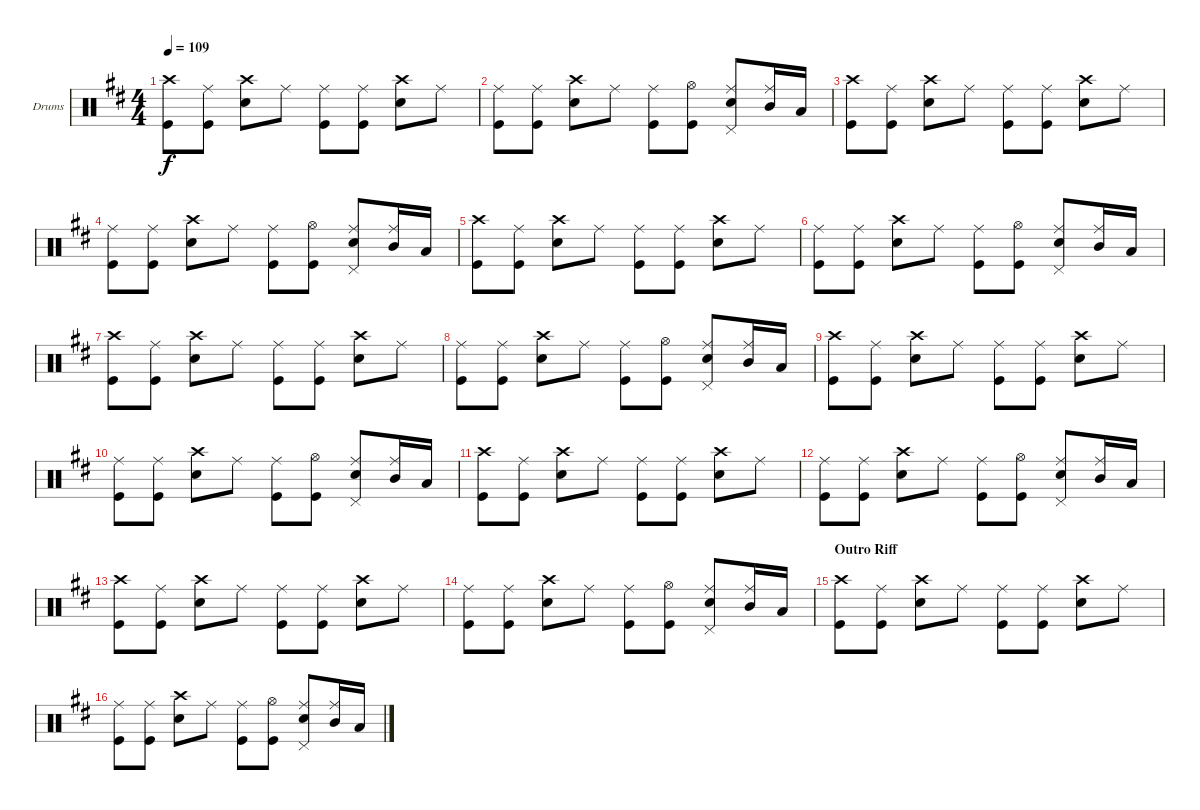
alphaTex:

\bracketExtendMode groupsimilarinstruments
\firstSystemTrackNameOrientation horizontal
\otherSystemsTrackNameOrientation horizontal
\track ("Drumkit" "Drums") {instrument percussion}
\staff {score}
\articulation defaults
\ts (4 4)
\tempo 109
\clef neutral
\ks d
("Kick (hit)" "Crash high (hit)").8{dy f} ("Kick (hit)" "Ride (middle)").8 ("Snare (hit) 2" "Crash high (hit)").8 "Ride (middle)".8 ("Kick (hit)" "Ride (middle)").8 ("Kick (hit)" "Ride (middle)").8 ("Snare (hit) 2" "Crash high (hit)").8 "Ride (middle)".8 |
("Kick (hit)" "Ride (middle)").8 ("Kick (hit)" "Ride (middle)").8 ("Snare (hit) 2" "Crash high (hit)").8 "Ride (middle)".8 ("Kick (hit)" "Ride (middle)").8 ("Kick (hit)" "Hi-Hat (open)").8 ("Snare (hit) 2" "Pedal Hi-Hat (hit)" "Ride (middle)").8 ("Ride (middle)" "Mid Tom (hit)").16 "Low Tom (hit)".16 |
("Kick (hit)" "Crash high (hit)").8 ("Kick (hit)" "Ride (middle)").8 ("Snare (hit) 2" "Crash high (hit)").8 "Ride (middle)".8 ("Kick (hit)" "Ride (middle)").8 ("Kick (hit)" "Ride (middle)").8 ("Snare (hit) 2" "Crash high (hit)").8 "Ride (middle)".8 |
("Kick (hit)" "Ride (middle)").8 ("Kick (hit)" "Ride (middle)").8 ("Snare (hit) 2" "Crash high (hit)").8 "Ride (middle)".8 ("Kick (hit)" "Ride (middle)").8 ("Kick (hit)" "Hi-Hat (open)").8 ("Snare (hit) 2" "Pedal Hi-Hat (hit)" "Ride (middle)").8 ("Ride (middle)" "Mid Tom (hit)").16 "Low Tom (hit)".16 |
("Kick (hit)" "Crash high (hit)").8 ("Kick (hit)" "Ride (middle)").8 ("Snare (hit) 2" "Crash high (hit)").8 "Ride (middle)".8 ("Kick (hit)" "Ride (middle)").8 ("Kick (hit)" "Ride (middle)").8 ("Snare (hit) 2" "Crash high (hit)").8 "Ride (middle)".8 |
("Kick (hit)" "Ride (middle)").8 ("Kick (hit)" "Ride (middle)").8 ("Snare (hit) 2" "Crash high (hit)").8 "Ride (middle)".8 ("Kick (hit)" "Ride (middle)").8 ("Kick (hit)" "Hi-Hat (open)").8 ("Snare (hit) 2" "Pedal Hi-Hat (hit)" "Ride (middle)").8 ("Ride (middle)" "Mid Tom (hit)").16 "Low Tom (hit)".16 |
("Kick (hit)" "Crash high (hit)").8 ("Kick (hit)" "Ride (middle)").8 ("Snare (hit) 2" "Crash high (hit)").8 "Ride (middle)".8 ("Kick (hit)" "Ride (middle)").8 ("Kick (hit)" "Ride (middle)").8 ("Snare (hit) 2" "Crash high (hit)").8 "Ride (middle)".8 |
("Kick (hit)" "Ride (middle)").8 ("Kick (hit)" "Ride (middle)").8 ("Snare (hit) 2" "Crash high (hit)").8 "Ride (middle)".8 ("Kick (hit)" "Ride (middle)").8 ("Kick (hit)" "Hi-Hat (open)").8 ("Snare (hit) 2" "Pedal Hi-Hat (hit)" "Ride (middle)").8 ("Ride (middle)" "Mid Tom (hit)").16 "Low Tom (hit)".16 |
("Kick (hit)" "Crash high (hit)").8 ("Kick (hit)" "Ride (middle)").8 ("Snare (hit) 2" "Crash high (hit)").8 "Ride (middle)".8 ("Kick (hit)" "Ride (middle)").8 ("Kick (hit)" "Ride (middle)").8 ("Snare (hit) 2" "Crash high (hit)").8 "Ride (middle)".8 |
("Kick (hit)" "Ride (middle)").8 ("Kick (hit)" "Ride (middle)").8 ("Snare (hit) 2" "Crash high (hit)").8 "Ride (middle)".8 ("Kick (hit)" "Ride (middle)").8 ("Kick (hit)" "Hi-Hat (open)").8 ("Snare (hit) 2" "Pedal Hi-Hat (hit)" "Ride (middle)").8 ("Ride (middle)" "Mid Tom (hit)").16 "Low Tom (hit)".16 |
("Kick (hit)" "Crash high (hit)").8 ("Kick (hit)" "Ride (middle)").8 ("Snare (hit) 2" "Crash high (hit)").8 "Ride (middle)".8 ("Kick (hit)" "Ride (middle)").8 ("Kick (hit)" "Ride (middle)").8 ("Snare (hit) 2" "Crash high (hit)").8 "Ride (middle)".8 |
("Kick (hit)" "Ride (middle)").8 ("Kick (hit)" "Ride (middle)").8 ("Snare (hit) 2" "Crash high (hit)").8 "Ride (middle)".8 ("Kick (hit)" "Ride (middle)").8 ("Kick (hit)" "Hi-Hat (open)").8 ("Snare (hit) 2" "Pedal Hi-Hat (hit)" "Ride (middle)").8 ("Ride (middle)" "Mid Tom (hit)").16 "Low Tom (hit)".16 |
("Kick (hit)" "Crash high (hit)").8 ("Kick (hit)" "Ride (middle)").8 ("Snare (hit) 2" "Crash high (hit)").8 "Ride (middle)".8 ("Kick (hit)" "Ride (middle)").8 ("Kick (hit)" "Ride (middle)").8 ("Snare (hit) 2" "Crash high (hit)").8 "Ride (middle)".8 |
("Kick (hit)" "Ride (middle)").8 ("Kick (hit)" "Ride (middle)").8 ("Snare (hit) 2" "Crash high (hit)").8 "Ride (middle)".8 ("Kick (hit)" "Ride (middle)").8 ("Kick (hit)" "Hi-Hat (open)").8 ("Snare (hit) 2" "Pedal Hi-Hat (hit)" "Ride (middle)").8 ("Ride (middle)" "Mid Tom (hit)").16 "Low Tom (hit)".16 |
\section ("" "Outro Riff")
("Kick (hit)" "Crash high (hit)").8 ("Kick (hit)" "Ride (middle)").8 ("Snare (hit) 2" "Crash high (hit)").8 "Ride (middle)".8 ("Kick (hit)" "Ride (middle)").8 ("Kick (hit)" "Ride (middle)").8 ("Snare (hit) 2" "Crash high (hit)").8 "Ride (middle)".8 |
("Kick (hit)" "Ride (middle)").8 ("Kick (hit)" "Ride (middle)").8 ("Snare (hit) 2" "Crash high (hit)").8 "Ride (middle)".8 ("Kick (hit)" "Ride (middle)").8 ("Kick (hit)" "Hi-Hat (open)").8 ("Snare (hit) 2" "Pedal Hi-Hat (hit)" "Ride (middle)").8 ("Ride (middle)" "Mid Tom (hit)").16 "Low Tom (hit)".16
